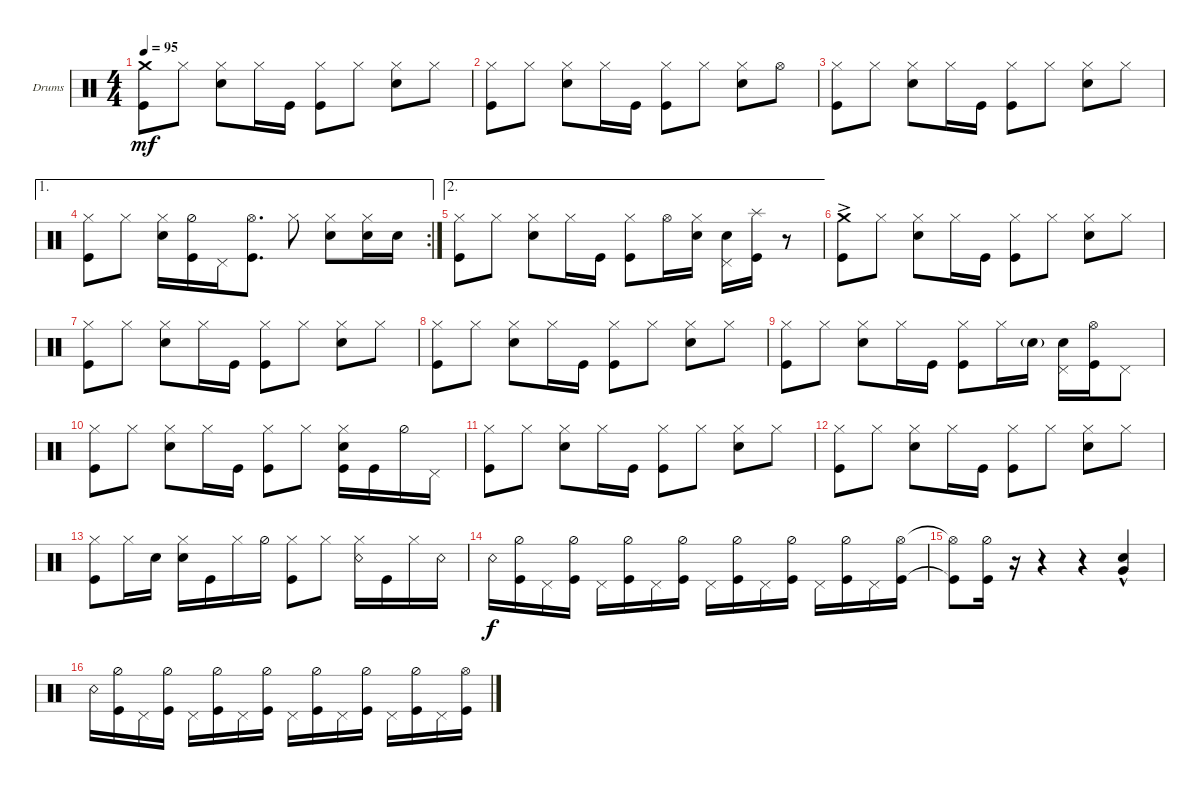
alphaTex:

\defaultSystemsLayout 4
\bracketExtendMode groupsimilarinstruments
\firstSystemTrackNameOrientation horizontal
\otherSystemsTrackNameOrientation horizontal
\track ("Batterie " "Drums") {instrument percussion}
\staff {score}
\articulation defaults
\ts (4 4)
\tempo 95
\clef neutral
\ks c
("Crash medium (hit)" "Kick (hit)").8{dy mf} "Hi-Hat (closed)".8 ("Hi-Hat (closed)" "Snare (hit) 2").8 "Hi-Hat (closed)".16 "Kick (hit)".16 ("Hi-Hat (closed)" "Kick (hit)").8 "Hi-Hat (closed)".8 ("Hi-Hat (closed)" "Snare (hit) 2").8 "Hi-Hat (closed)".8 |
("Kick (hit)" "Hi-Hat (closed)").8 "Hi-Hat (closed)".8 ("Hi-Hat (closed)" "Snare (hit) 2").8 "Hi-Hat (closed)".16 "Kick (hit)".16 ("Hi-Hat (closed)" "Kick (hit)").8 "Hi-Hat (closed)".8 ("Hi-Hat (closed)" "Snare (hit) 2").8 "Hi-Hat (open)".8 |
("Kick (hit)" "Hi-Hat (closed)").8 "Hi-Hat (closed)".8 ("Hi-Hat (closed)" "Snare (hit) 2").8 "Hi-Hat (closed)".16 "Kick (hit)".16 ("Hi-Hat (closed)" "Kick (hit)").8 "Hi-Hat (closed)".8 ("Hi-Hat (closed)" "Snare (hit) 2").8 "Hi-Hat (closed)".8 |
\ae 1
\rc 2
("Kick (hit)" "Hi-Hat (closed)").8 "Hi-Hat (closed)".8 ("Hi-Hat (closed)" "Snare (hit) 2").16 ("Hi-Hat (half)" "Kick (hit)").16 "Pedal Hi-Hat (hit)".16 ("Hi-Hat (open)" "Kick (hit)").8{d} "Hi-Hat (closed)".8 ("Hi-Hat (closed)" "Snare (hit) 2").8 ("Hi-Hat (closed)" "Snare (hit) 2").16 "Snare (hit) 2".16 |
\ae 2
("Kick (hit)" "Hi-Hat (closed)").8 "Hi-Hat (closed)".8 ("Hi-Hat (closed)" "Snare (hit) 2").8 "Hi-Hat (closed)".16 "Kick (hit)".16 ("Hi-Hat (closed)" "Kick (hit)").8 "Hi-Hat (open)".16 ("Snare (hit) 2" "Hi-Hat (closed)").16 ("Snare (hit) 2" "Pedal Hi-Hat (hit)").16 ("Kick (hit)" "Splash (hit)").16 r.8 |
("Crash medium (hit)"{ac} "Kick (hit)").8 "Hi-Hat (closed)".8 ("Hi-Hat (closed)" "Snare (hit) 2").8 "Hi-Hat (closed)".16 "Kick (hit)".16 ("Kick (hit)" "Hi-Hat (closed)").8 "Hi-Hat (closed)".8 ("Hi-Hat (closed)" "Snare (hit) 2").8 "Hi-Hat (closed)".8 |
("Kick (hit)" "Hi-Hat (closed)").8 "Hi-Hat (closed)".8 ("Hi-Hat (closed)" "Snare (hit) 2").8 "Hi-Hat (closed)".16 "Kick (hit)".16 ("Kick (hit)" "Hi-Hat (closed)").8 "Hi-Hat (closed)".8 ("Hi-Hat (closed)" "Snare (hit) 2").8 "Hi-Hat (closed)".8 |
("Kick (hit)" "Hi-Hat (closed)").8 "Hi-Hat (closed)".8 ("Hi-Hat (closed)" "Snare (hit) 2").8 "Hi-Hat (closed)".16 "Kick (hit)".16 ("Kick (hit)" "Hi-Hat (closed)").8 "Hi-Hat (closed)".8 ("Hi-Hat (closed)" "Snare (hit) 2").8 "Hi-Hat (closed)".8 |
("Kick (hit)" "Hi-Hat (closed)").8 "Hi-Hat (closed)".8 ("Hi-Hat (closed)" "Snare (hit) 2").8 "Hi-Hat (closed)".16 "Kick (hit)".16 ("Hi-Hat (closed)" "Kick (hit)").8 "Hi-Hat (closed)".16 "Snare (hit) 2"{g}.16 ("Snare (hit) 2" "Pedal Hi-Hat (hit)").16 ("Kick (hit)" "Hi-Hat (open)").16 "Pedal Hi-Hat (hit)".8 |
("Kick (hit)" "Hi-Hat (closed)").8 "Hi-Hat (closed)".8 ("Hi-Hat (closed)" "Snare (hit) 2").8 "Hi-Hat (closed)".16 "Kick (hit)".16 ("Kick (hit)" "Hi-Hat (closed)").8 "Hi-Hat (closed)".8 ("Hi-Hat (closed)" "Kick (hit)" "Snare (hit) 2").16 "Kick (hit)".16 "Hi-Hat (half)".16 "Pedal Hi-Hat (hit)".16 |
("Kick (hit)" "Hi-Hat (closed)").8 "Hi-Hat (closed)".8 ("Hi-Hat (closed)" "Snare (hit) 2").8 "Hi-Hat (closed)".16 "Kick (hit)".16 ("Kick (hit)" "Hi-Hat (closed)").8 "Hi-Hat (closed)".8 ("Hi-Hat (closed)" "Snare (hit) 2").8 "Hi-Hat (closed)".8 |
("Kick (hit)" "Hi-Hat (closed)").8 "Hi-Hat (closed)".8 ("Hi-Hat (closed)" "Snare (hit) 2").8 "Hi-Hat (closed)".16 "Kick (hit)".16 ("Kick (hit)" "Hi-Hat (closed)").8 "Hi-Hat (closed)".8 ("Hi-Hat (closed)" "Snare (hit) 2").8 "Hi-Hat (closed)".8 |
("Kick (hit)" "Hi-Hat (closed)").8 "Hi-Hat (closed)".16 "Snare (hit) 2".16 ("Hi-Hat (closed)" "Snare (hit) 2").16 "Kick (hit)".16 "Hi-Hat (closed)".16 "Hi-Hat (half)".16 ("Kick (hit)" "Hi-Hat (closed)").8 "Hi-Hat (closed)".8 ("Hi-Hat (closed)" "Snare (rim shot)").16 "Kick (hit)".16 "Hi-Hat (closed)".16 "Snare (rim shot)".16 |
"Snare (rim shot)".16{dy f} ("Kick (hit)" "Hi-Hat (half)").16 "Pedal Hi-Hat (hit)".16 ("Kick (hit)" "Hi-Hat (half)").16 "Pedal Hi-Hat (hit)".16 ("Kick (hit)" "Hi-Hat (half)").16 "Pedal Hi-Hat (hit)".16 ("Kick (hit)" "Hi-Hat (half)").16 "Pedal Hi-Hat (hit)".16 ("Kick (hit)" "Hi-Hat (half)").16 "Pedal Hi-Hat (hit)".16 ("Kick (hit)" "Hi-Hat (half)").16 "Pedal Hi-Hat (hit)".16 ("Kick (hit)" "Hi-Hat (half)").16 "Pedal Hi-Hat (hit)".16 ("Kick (hit)" "Hi-Hat (open)").16 |
("Kick (hit)"{t} "Hi-Hat (open)"{t}).8 ("Kick (hit)" "Hi-Hat (half)").16 r.16 r.4 r.4 ("Snare (hit) 2"{hac} "Very Low Tom (hit)"{hac}).4 |
"Snare (rim shot)".16 ("Kick (hit)" "Hi-Hat (half)").16 "Pedal Hi-Hat (hit)".16 ("Kick (hit)" "Hi-Hat (half)").16 "Pedal Hi-Hat (hit)".16 ("Kick (hit)" "Hi-Hat (half)").16 "Pedal Hi-Hat (hit)".16 ("Kick (hit)" "Hi-Hat (half)").16 "Pedal Hi-Hat (hit)".16 ("Kick (hit)" "Hi-Hat (half)").16 "Pedal Hi-Hat (hit)".16 ("Kick (hit)" "Hi-Hat (half)").16 "Pedal Hi-Hat (hit)".16 ("Kick (hit)" "Hi-Hat (half)").16 "Pedal Hi-Hat (hit)".16 ("Kick (hit)" "Hi-Hat (open)").16
